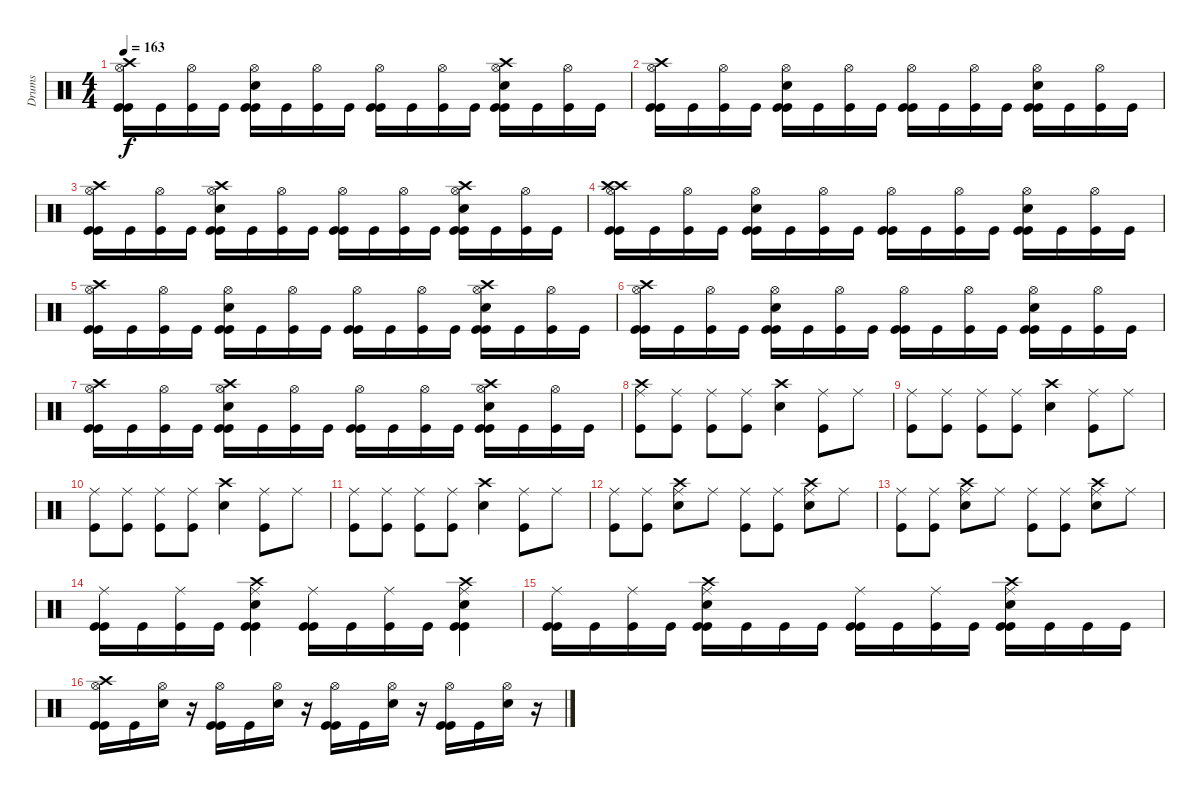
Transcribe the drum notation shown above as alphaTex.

\track ("Drums" "Drums") {instrument percussion}
\staff {score}
\articulation defaults
\ts (4 4)
\tempo 163
\clef neutral
\ks c
("Crash high (hit)" "Hi-Hat (open)" "Kick (hit)" "Kick (hit)").16{dy f} "Kick (hit)".16 ("Kick (hit)" "Hi-Hat (open)").16 "Kick (hit)".16 ("Electric Snare (hit)" "Hi-Hat (open)" "Kick (hit)" "Kick (hit)").16 "Kick (hit)".16 ("Kick (hit)" "Hi-Hat (open)").16 "Kick (hit)".16 ("Hi-Hat (open)" "Kick (hit)" "Kick (hit)").16 "Kick (hit)".16 ("Kick (hit)" "Hi-Hat (open)").16 "Kick (hit)".16 ("Crash high (hit)" "Electric Snare (hit)" "Hi-Hat (open)" "Kick (hit)" "Kick (hit)").16 "Kick (hit)".16 ("Kick (hit)" "Hi-Hat (open)").16 "Kick (hit)".16 |
("Crash high (hit)" "Hi-Hat (open)" "Kick (hit)" "Kick (hit)").16 "Kick (hit)".16 ("Kick (hit)" "Hi-Hat (open)").16 "Kick (hit)".16 ("Electric Snare (hit)" "Hi-Hat (open)" "Kick (hit)" "Kick (hit)").16 "Kick (hit)".16 ("Kick (hit)" "Hi-Hat (open)").16 "Kick (hit)".16 ("Hi-Hat (open)" "Kick (hit)" "Kick (hit)").16 "Kick (hit)".16 ("Kick (hit)" "Hi-Hat (open)").16 "Kick (hit)".16 ("Electric Snare (hit)" "Hi-Hat (open)" "Kick (hit)" "Kick (hit)").16 "Kick (hit)".16 ("Kick (hit)" "Hi-Hat (open)").16 "Kick (hit)".16 |
("Crash high (hit)" "Hi-Hat (open)" "Kick (hit)" "Kick (hit)").16 "Kick (hit)".16 ("Kick (hit)" "Hi-Hat (open)").16 "Kick (hit)".16 ("Crash high (hit)" "Electric Snare (hit)" "Hi-Hat (open)" "Kick (hit)" "Kick (hit)").16 "Kick (hit)".16 ("Kick (hit)" "Hi-Hat (open)").16 "Kick (hit)".16 ("Hi-Hat (open)" "Kick (hit)" "Kick (hit)").16 "Kick (hit)".16 ("Kick (hit)" "Hi-Hat (open)").16 "Kick (hit)".16 ("Crash high (hit)" "Electric Snare (hit)" "Hi-Hat (open)" "Kick (hit)" "Kick (hit)").16 "Kick (hit)".16 ("Kick (hit)" "Hi-Hat (open)").16 "Kick (hit)".16 |
("Crash high (hit)" "Crash high (hit)" "Hi-Hat (open)" "Kick (hit)" "Kick (hit)").16 "Kick (hit)".16 ("Kick (hit)" "Hi-Hat (open)").16 "Kick (hit)".16 ("Electric Snare (hit)" "Hi-Hat (open)" "Kick (hit)" "Kick (hit)").16 "Kick (hit)".16 ("Kick (hit)" "Hi-Hat (open)").16 "Kick (hit)".16 ("Hi-Hat (open)" "Kick (hit)" "Kick (hit)").16 "Kick (hit)".16 ("Kick (hit)" "Hi-Hat (open)").16 "Kick (hit)".16 ("Electric Snare (hit)" "Hi-Hat (open)" "Kick (hit)" "Kick (hit)").16 "Kick (hit)".16 ("Kick (hit)" "Hi-Hat (open)").16 "Kick (hit)".16 |
("Crash high (hit)" "Hi-Hat (open)" "Kick (hit)" "Kick (hit)").16 "Kick (hit)".16 ("Kick (hit)" "Hi-Hat (open)").16 "Kick (hit)".16 ("Electric Snare (hit)" "Hi-Hat (open)" "Kick (hit)" "Kick (hit)").16 "Kick (hit)".16 ("Kick (hit)" "Hi-Hat (open)").16 "Kick (hit)".16 ("Hi-Hat (open)" "Kick (hit)" "Kick (hit)").16 "Kick (hit)".16 ("Kick (hit)" "Hi-Hat (open)").16 "Kick (hit)".16 ("Crash high (hit)" "Electric Snare (hit)" "Hi-Hat (open)" "Kick (hit)" "Kick (hit)").16 "Kick (hit)".16 ("Kick (hit)" "Hi-Hat (open)").16 "Kick (hit)".16 |
("Crash high (hit)" "Hi-Hat (open)" "Kick (hit)" "Kick (hit)").16 "Kick (hit)".16 ("Kick (hit)" "Hi-Hat (open)").16 "Kick (hit)".16 ("Electric Snare (hit)" "Hi-Hat (open)" "Kick (hit)" "Kick (hit)").16 "Kick (hit)".16 ("Kick (hit)" "Hi-Hat (open)").16 "Kick (hit)".16 ("Hi-Hat (open)" "Kick (hit)" "Kick (hit)").16 "Kick (hit)".16 ("Kick (hit)" "Hi-Hat (open)").16 "Kick (hit)".16 ("Electric Snare (hit)" "Hi-Hat (open)" "Kick (hit)" "Kick (hit)").16 "Kick (hit)".16 ("Kick (hit)" "Hi-Hat (open)").16 "Kick (hit)".16 |
("Crash high (hit)" "Hi-Hat (open)" "Kick (hit)" "Kick (hit)").16 "Kick (hit)".16 ("Kick (hit)" "Hi-Hat (open)").16 "Kick (hit)".16 ("Crash high (hit)" "Electric Snare (hit)" "Hi-Hat (open)" "Kick (hit)" "Kick (hit)").16 "Kick (hit)".16 ("Kick (hit)" "Hi-Hat (open)").16 "Kick (hit)".16 ("Hi-Hat (open)" "Kick (hit)" "Kick (hit)").16 "Kick (hit)".16 ("Kick (hit)" "Hi-Hat (open)").16 "Kick (hit)".16 ("Crash high (hit)" "Electric Snare (hit)" "Hi-Hat (open)" "Kick (hit)" "Kick (hit)").16 "Kick (hit)".16 ("Kick (hit)" "Hi-Hat (open)").16 "Kick (hit)".16 |
("Crash high (hit)" "Ride (middle)" "Kick (hit)").8 ("Ride (middle)" "Kick (hit)").8 ("Ride (middle)" "Kick (hit)").8 ("Ride (middle)" "Kick (hit)").8 ("Crash high (hit)" "Snare (hit) 2").4 ("Ride (middle)" "Kick (hit)").8 "Ride (middle)".8 |
("Ride (middle)" "Kick (hit)").8 ("Ride (middle)" "Kick (hit)").8 ("Ride (middle)" "Kick (hit)").8 ("Ride (middle)" "Kick (hit)").8 ("Crash high (hit)" "Snare (hit) 2").4 ("Ride (middle)" "Kick (hit)").8 "Ride (middle)".8 |
("Ride (middle)" "Kick (hit)").8 ("Ride (middle)" "Kick (hit)").8 ("Ride (middle)" "Kick (hit)").8 ("Ride (middle)" "Kick (hit)").8 ("Crash high (hit)" "Snare (hit) 2").4 ("Ride (middle)" "Kick (hit)").8 "Ride (middle)".8 |
("Ride (middle)" "Kick (hit)").8 ("Ride (middle)" "Kick (hit)").8 ("Ride (middle)" "Kick (hit)").8 ("Ride (middle)" "Kick (hit)").8 ("Crash high (hit)" "Snare (hit) 2").4 ("Ride (middle)" "Kick (hit)").8 "Ride (middle)".8 |
("Ride (middle)" "Kick (hit)").8 ("Ride (middle)" "Kick (hit)").8 ("Crash high (hit)" "Ride (middle)" "Snare (hit) 2").8 "Ride (middle)".8 ("Ride (middle)" "Kick (hit)").8 ("Ride (middle)" "Kick (hit)").8 ("Crash high (hit)" "Ride (middle)" "Snare (hit) 2").8 "Ride (middle)".8 |
("Ride (middle)" "Kick (hit)").8 ("Ride (middle)" "Kick (hit)").8 ("Crash high (hit)" "Ride (middle)" "Snare (hit) 2").8 "Ride (middle)".8 ("Ride (middle)" "Kick (hit)").8 ("Ride (middle)" "Kick (hit)").8 ("Crash high (hit)" "Ride (middle)" "Snare (hit) 2").8 "Ride (middle)".8 |
("Ride (middle)" "Kick (hit)" "Kick (hit)").16 "Kick (hit)".16 ("Ride (middle)" "Kick (hit)").16 "Kick (hit)".16 ("Crash high (hit)" "Electric Snare (hit)" "Ride (middle)" "Kick (hit)" "Kick (hit)").4 ("Ride (middle)" "Kick (hit)" "Kick (hit)").16 "Kick (hit)".16 ("Ride (middle)" "Kick (hit)").16 "Kick (hit)".16 ("Crash high (hit)" "Electric Snare (hit)" "Ride (middle)" "Kick (hit)" "Kick (hit)").4 |
("Ride (middle)" "Kick (hit)" "Kick (hit)").16 "Kick (hit)".16 ("Ride (middle)" "Kick (hit)").16 "Kick (hit)".16 ("Crash high (hit)" "Electric Snare (hit)" "Ride (middle)" "Kick (hit)" "Kick (hit)").16 "Kick (hit)".16 "Kick (hit)".16 "Kick (hit)".16 ("Ride (middle)" "Kick (hit)" "Kick (hit)").16 "Kick (hit)".16 ("Ride (middle)" "Kick (hit)").16 "Kick (hit)".16 ("Crash high (hit)" "Electric Snare (hit)" "Ride (middle)" "Kick (hit)" "Kick (hit)").16 "Kick (hit)".16 "Kick (hit)".16 "Kick (hit)".16 |
("Crash high (hit)" "Hi-Hat (open)" "Kick (hit)" "Kick (hit)").16 "Kick (hit)".16 ("Hi-Hat (open)" "Electric Snare (hit)").16 r.16 ("Hi-Hat (open)" "Kick (hit)" "Kick (hit)").16 "Kick (hit)".16 ("Hi-Hat (open)" "Electric Snare (hit)").16 r.16 ("Hi-Hat (open)" "Kick (hit)" "Kick (hit)").16 "Kick (hit)".16 ("Hi-Hat (open)" "Electric Snare (hit)").16 r.16 ("Hi-Hat (open)" "Kick (hit)" "Kick (hit)").16 "Kick (hit)".16 ("Hi-Hat (open)" "Electric Snare (hit)").16 r.16
